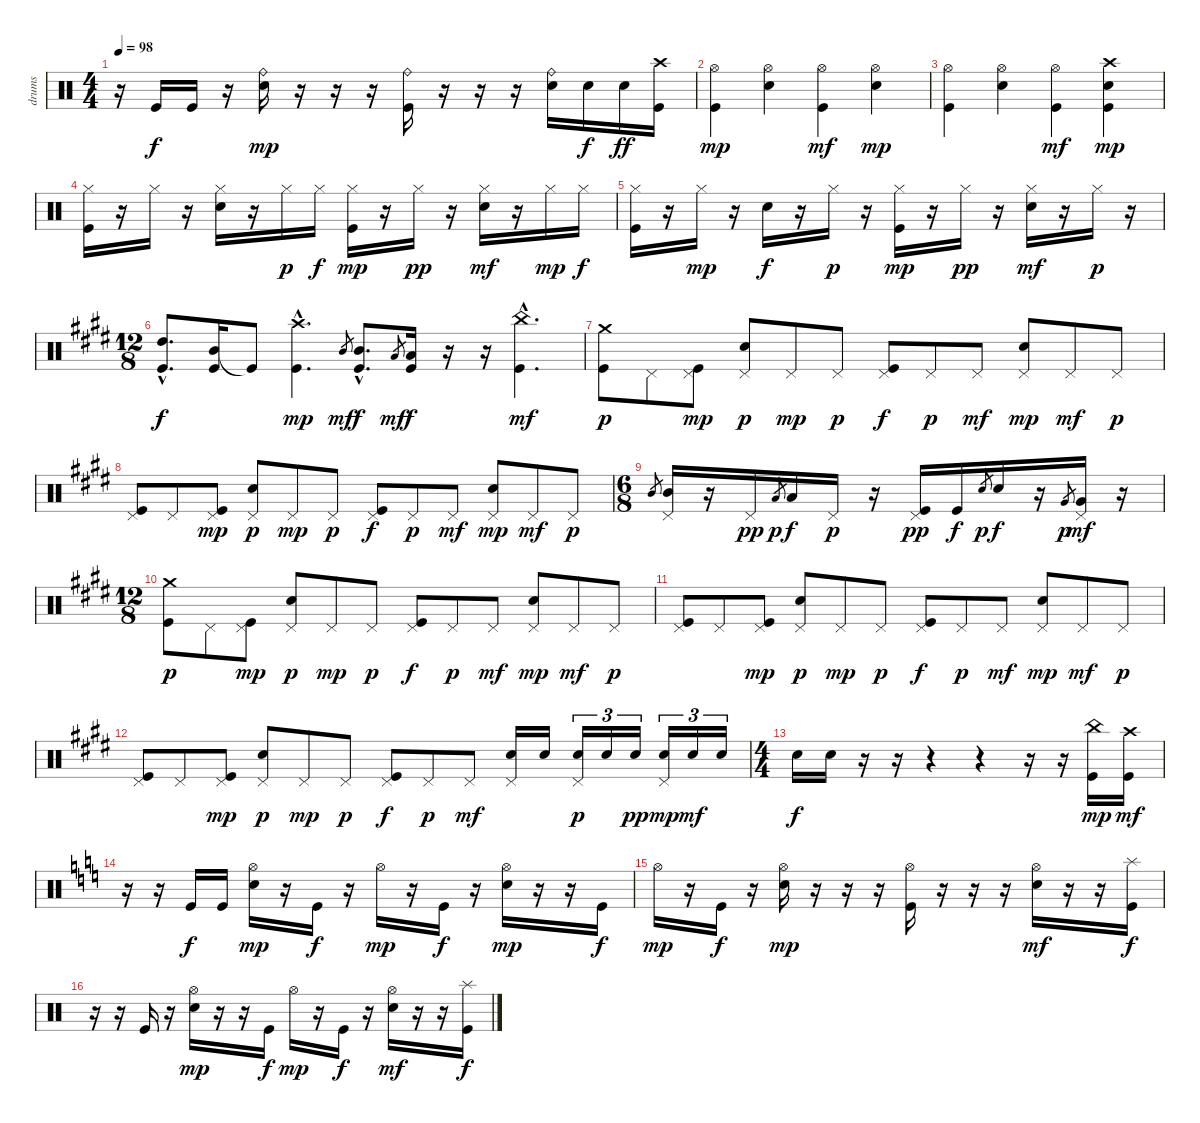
\track ("drums" "drums") {instrument percussion}
\staff {score}
\articulation defaults
\ts (4 4)
\tempo 98
\clef neutral
\ks c
r.16{dy f} "Kick (hit)".16 "Kick (hit)".16 r.16 ("Ride (bell)" "Electric Snare (hit)").16{dy mp} r.16 r.16 r.16 ("Ride (bell)" "Kick (hit)").16 r.16 r.16 r.16 ("Ride (bell)" "Electric Snare (hit)").16 "Electric Snare (hit)".16{dy f} "Electric Snare (hit)".16{dy ff} ("Crash high (hit)" "Kick (hit)").16 |
("Hi-Hat (open)" "Kick (hit)").4{dy mp} ("Hi-Hat (open)" "Electric Snare (hit)").4 ("Hi-Hat (open)" "Kick (hit)").4{dy mf} ("Hi-Hat (open)" "Electric Snare (hit)").4{dy mp} |
("Hi-Hat (open)" "Kick (hit)").4 ("Hi-Hat (open)" "Electric Snare (hit)").4 ("Hi-Hat (open)" "Kick (hit)").4{dy mf} ("Crash high (hit)" "Electric Snare (hit)" "Kick (hit)").4{dy mp} |
("Hi-Hat (closed)" "Kick (hit)").16 r.16 "Hi-Hat (closed)".16 r.16 ("Hi-Hat (closed)" "Electric Snare (hit)").16 r.16 "Hi-Hat (closed)".16{dy p} "Hi-Hat (closed)".16{dy f} ("Hi-Hat (closed)" "Kick (hit)").16{dy mp} r.16 "Hi-Hat (closed)".16{dy pp} r.16 ("Hi-Hat (closed)" "Electric Snare (hit)").16{dy mf} r.16 "Hi-Hat (closed)".16{dy mp} "Hi-Hat (closed)".16{dy f} |
("Hi-Hat (closed)" "Kick (hit)").16 r.16 "Hi-Hat (closed)".16{dy mp} r.16 "Electric Snare (hit)".16{dy f} r.16 "Hi-Hat (closed)".16{dy p} r.16 ("Hi-Hat (closed)" "Kick (hit)").16{dy mp} r.16 "Hi-Hat (closed)".16{dy pp} r.16 ("Hi-Hat (closed)" "Electric Snare (hit)").16{dy mf} r.16 "Hi-Hat (closed)".16{dy p} r.16 |
\ts (12 8)
\ks e
("High Tom (hit)"{hac} "Kick (hit)"{hac}).8{d dy f} ("Mid Tom (hit)" "Kick (hit)").16 "Kick (hit)"{t}.8 ("Crash high (hit)"{hac} "Kick (hit)"{hac}).4{d dy mp} "Mid Tom (hit)".8{gr dy mf} ("Mid Tom (hit)"{hac} "Kick (hit)"{hac}).8{d dy f} "Low Tom (hit)".8{gr dy mf} ("Low Tom (hit)" "Kick (hit)").16{dy f} r.16 r.16 ("China (hit)"{hac} "Kick (hit)"{hac}).4{d dy mf} |
("Crash medium (hit)" "Kick (hit)").8{dy p} "Pedal Hi-Hat (hit)".8 ("Pedal Hi-Hat (hit)" "Kick (hit)").8{dy mp} ("Pedal Hi-Hat (hit)" "Electric Snare (hit)").8{dy p} "Pedal Hi-Hat (hit)".8{dy mp} "Pedal Hi-Hat (hit)".8{dy p} ("Pedal Hi-Hat (hit)" "Kick (hit)").8{dy f} "Pedal Hi-Hat (hit)".8{dy p} "Pedal Hi-Hat (hit)".8{dy mf} ("Pedal Hi-Hat (hit)" "Electric Snare (hit)").8{dy mp} "Pedal Hi-Hat (hit)".8{dy mf} "Pedal Hi-Hat (hit)".8{dy p} |
("Pedal Hi-Hat (hit)" "Kick (hit)").8 "Pedal Hi-Hat (hit)".8 ("Pedal Hi-Hat (hit)" "Kick (hit)").8{dy mp} ("Pedal Hi-Hat (hit)" "Electric Snare (hit)").8{dy p} "Pedal Hi-Hat (hit)".8{dy mp} "Pedal Hi-Hat (hit)".8{dy p} ("Pedal Hi-Hat (hit)" "Kick (hit)").8{dy f} "Pedal Hi-Hat (hit)".8{dy p} "Pedal Hi-Hat (hit)".8{dy mf} ("Pedal Hi-Hat (hit)" "Electric Snare (hit)").8{dy mp} "Pedal Hi-Hat (hit)".8{dy mf} "Pedal Hi-Hat (hit)".8{dy p} |
\ts (6 8)
"Mid Tom (hit)".8{gr} ("Pedal Hi-Hat (hit)" "Mid Tom (hit)").16 r.16 "Pedal Hi-Hat (hit)".16{dy pp} "Low Tom (hit)".8{gr dy p} "Low Tom (hit)".16{dy f} "Pedal Hi-Hat (hit)".16{dy p} r.16 ("Pedal Hi-Hat (hit)" "Kick (hit)").16{dy pp} "Kick (hit)".16{dy f} "Electric Snare (hit)".8{gr dy p} "Electric Snare (hit)".16{dy f} r.16 "Very Low Tom (hit)".8{gr dy p} ("Pedal Hi-Hat (hit)" "Very Low Tom (hit)").16{dy mf} r.16 |
\ts (12 8)
("Crash medium (hit)" "Kick (hit)").8{dy p} "Pedal Hi-Hat (hit)".8 ("Pedal Hi-Hat (hit)" "Kick (hit)").8{dy mp} ("Pedal Hi-Hat (hit)" "Electric Snare (hit)").8{dy p} "Pedal Hi-Hat (hit)".8{dy mp} "Pedal Hi-Hat (hit)".8{dy p} ("Pedal Hi-Hat (hit)" "Kick (hit)").8{dy f} "Pedal Hi-Hat (hit)".8{dy p} "Pedal Hi-Hat (hit)".8{dy mf} ("Pedal Hi-Hat (hit)" "Electric Snare (hit)").8{dy mp} "Pedal Hi-Hat (hit)".8{dy mf} "Pedal Hi-Hat (hit)".8{dy p} |
("Pedal Hi-Hat (hit)" "Kick (hit)").8 "Pedal Hi-Hat (hit)".8 ("Pedal Hi-Hat (hit)" "Kick (hit)").8{dy mp} ("Pedal Hi-Hat (hit)" "Electric Snare (hit)").8{dy p} "Pedal Hi-Hat (hit)".8{dy mp} "Pedal Hi-Hat (hit)".8{dy p} ("Pedal Hi-Hat (hit)" "Kick (hit)").8{dy f} "Pedal Hi-Hat (hit)".8{dy p} "Pedal Hi-Hat (hit)".8{dy mf} ("Pedal Hi-Hat (hit)" "Electric Snare (hit)").8{dy mp} "Pedal Hi-Hat (hit)".8{dy mf} "Pedal Hi-Hat (hit)".8{dy p} |
("Pedal Hi-Hat (hit)" "Kick (hit)").8 "Pedal Hi-Hat (hit)".8 ("Pedal Hi-Hat (hit)" "Kick (hit)").8{dy mp} ("Pedal Hi-Hat (hit)" "Electric Snare (hit)").8{dy p} "Pedal Hi-Hat (hit)".8{dy mp} "Pedal Hi-Hat (hit)".8{dy p} ("Pedal Hi-Hat (hit)" "Kick (hit)").8{dy f} "Pedal Hi-Hat (hit)".8{dy p} "Pedal Hi-Hat (hit)".8{dy mf} ("Pedal Hi-Hat (hit)" "Electric Snare (hit)").16 "Electric Snare (hit)".16 ("Pedal Hi-Hat (hit)" "Electric Snare (hit)").16{tu (3 2) dy p} "Electric Snare (hit)".16{tu (3 2)} "Electric Snare (hit)".16{tu (3 2) dy pp} ("Pedal Hi-Hat (hit)" "Electric Snare (hit)").16{tu (3 2) dy mp} "Electric Snare (hit)".16{tu (3 2) dy mf} "Electric Snare (hit)".16{tu (3 2)} |
\ts (4 4)
"Electric Snare (hit)".16{dy f} "Electric Snare (hit)".16 r.16 r.16 r.4 r.4 r.16 r.16 ("China (hit)" "Kick (hit)").16{dy mp} ("Crash high (hit)" "Kick (hit)").16{dy mf} |
\ks c
r.16 r.16 "Kick (hit)".16{dy f} "Kick (hit)".16 ("Hi-Hat (open)" "Electric Snare (hit)").16{dy mp} r.16 "Kick (hit)".16{dy f} r.16 "Hi-Hat (open)".16{dy mp} r.16 "Kick (hit)".16{dy f} r.16 ("Hi-Hat (open)" "Electric Snare (hit)").16{dy mp} r.16 r.16 "Kick (hit)".16{dy f} |
"Hi-Hat (open)".16{dy mp} r.16 "Kick (hit)".16{dy f} r.16 ("Hi-Hat (open)" "Electric Snare (hit)").16{dy mp} r.16 r.16 r.16 ("Hi-Hat (open)" "Kick (hit)").16 r.16 r.16 r.16 ("Hi-Hat (open)" "Electric Snare (hit)").16{dy mf} r.16 r.16 ("Splash (hit)" "Kick (hit)").16{dy f} |
r.16 r.16 "Kick (hit)".16 r.16 ("Hi-Hat (open)" "Electric Snare (hit)").16{dy mp} r.16 r.16 "Kick (hit)".16{dy f} "Hi-Hat (open)".16{dy mp} r.16 "Kick (hit)".16{dy f} r.16 ("Hi-Hat (open)" "Electric Snare (hit)").16{dy mf} r.16 r.16 ("Splash (hit)" "Kick (hit)").16{dy f}
